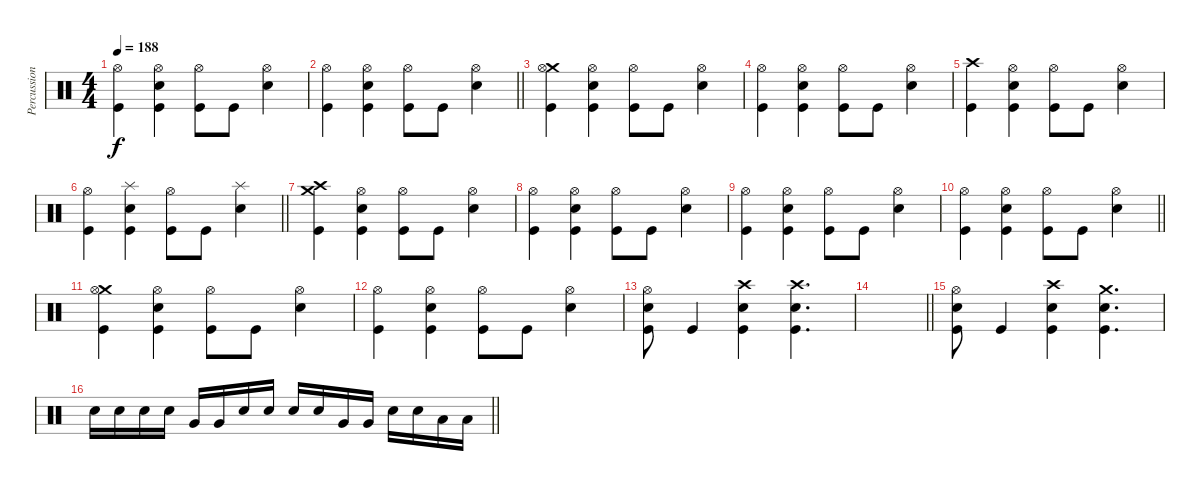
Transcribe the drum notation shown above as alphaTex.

\track ("Percussion" "Percussion") {instrument percussion}
\staff {score}
\articulation defaults
\ts (4 4)
\tempo 188
\clef neutral
\ks c
("Hi-Hat (open)" "Kick (hit)").4{dy f} ("Hi-Hat (open)" "Electric Snare (hit)" "Kick (hit)").4 ("Hi-Hat (open)" "Kick (hit)").8 "Kick (hit)".8 ("Hi-Hat (open)" "Electric Snare (hit)").4 |
\barLineRight lightlight
("Hi-Hat (open)" "Kick (hit)").4 ("Hi-Hat (open)" "Electric Snare (hit)" "Kick (hit)").4 ("Hi-Hat (open)" "Kick (hit)").8 "Kick (hit)".8 ("Hi-Hat (open)" "Electric Snare (hit)").4 |
("Crash medium (hit)" "Hi-Hat (open)" "Kick (hit)").4 ("Hi-Hat (open)" "Electric Snare (hit)" "Kick (hit)").4 ("Hi-Hat (open)" "Kick (hit)").8 "Kick (hit)".8 ("Hi-Hat (open)" "Electric Snare (hit)").4 |
("Hi-Hat (open)" "Kick (hit)").4 ("Hi-Hat (open)" "Electric Snare (hit)" "Kick (hit)").4 ("Hi-Hat (open)" "Kick (hit)").8 "Kick (hit)".8 ("Hi-Hat (open)" "Electric Snare (hit)").4 |
("Crash high (hit)" "Kick (hit)").4 ("Hi-Hat (open)" "Electric Snare (hit)" "Kick (hit)").4 ("Hi-Hat (open)" "Kick (hit)").8 "Kick (hit)".8 ("Hi-Hat (open)" "Electric Snare (hit)").4 |
\barLineRight lightlight
("Hi-Hat (open)" "Kick (hit)").4 ("Splash (hit)" "Electric Snare (hit)" "Kick (hit)").4 ("Hi-Hat (open)" "Kick (hit)").8 "Kick (hit)".8 ("Splash (hit)" "Electric Snare (hit)").4 |
("Crash high (hit)" "Crash medium (hit)" "Kick (hit)").4 ("Hi-Hat (open)" "Electric Snare (hit)" "Kick (hit)").4 ("Hi-Hat (open)" "Kick (hit)").8 "Kick (hit)".8 ("Hi-Hat (open)" "Electric Snare (hit)").4 |
("Hi-Hat (open)" "Kick (hit)").4 ("Hi-Hat (open)" "Electric Snare (hit)" "Kick (hit)").4 ("Hi-Hat (open)" "Kick (hit)").8 "Kick (hit)".8 ("Hi-Hat (open)" "Electric Snare (hit)").4 |
("Hi-Hat (open)" "Kick (hit)").4 ("Hi-Hat (open)" "Electric Snare (hit)" "Kick (hit)").4 ("Hi-Hat (open)" "Kick (hit)").8 "Kick (hit)".8 ("Hi-Hat (open)" "Electric Snare (hit)").4 |
\barLineRight lightlight
("Hi-Hat (open)" "Kick (hit)").4 ("Hi-Hat (open)" "Electric Snare (hit)" "Kick (hit)").4 ("Hi-Hat (open)" "Kick (hit)").8 "Kick (hit)".8 ("Hi-Hat (open)" "Electric Snare (hit)").4 |
("Crash medium (hit)" "Hi-Hat (open)" "Kick (hit)").4 ("Hi-Hat (open)" "Electric Snare (hit)" "Kick (hit)").4 ("Hi-Hat (open)" "Kick (hit)").8 "Kick (hit)".8 ("Hi-Hat (open)" "Electric Snare (hit)").4 |
("Hi-Hat (open)" "Kick (hit)").4 ("Hi-Hat (open)" "Electric Snare (hit)" "Kick (hit)").4 ("Hi-Hat (open)" "Kick (hit)").8 "Kick (hit)".8 ("Hi-Hat (open)" "Electric Snare (hit)").4 |
("Hi-Hat (open)" "Electric Snare (hit)" "Kick (hit)").8 "Kick (hit)".4 ("Crash high (hit)" "Electric Snare (hit)" "Kick (hit)").4 ("Crash high (hit)" "Electric Snare (hit)" "Kick (hit)").4{d} |
\barLineRight lightlight
|
("Hi-Hat (open)" "Electric Snare (hit)" "Kick (hit)").8 "Kick (hit)".4 ("Crash high (hit)" "Electric Snare (hit)" "Kick (hit)").4 ("Crash medium (hit)" "Electric Snare (hit)" "Kick (hit)").4{d} |
\barLineRight lightlight "Electric Snare (hit)".16 "Electric Snare (hit)".16 "Electric Snare (hit)".16 "Electric Snare (hit)".16 "Very Low Tom (hit)".16 "Very Low Tom (hit)".16 "Electric Snare (hit)".16 "Electric Snare (hit)".16 "Electric Snare (hit)".16 "Electric Snare (hit)".16 "Very Low Tom (hit)".16 "Very Low Tom (hit)".16 "Electric Snare (hit)".16 "Electric Snare (hit)".16 "Low Floor Tom (hit)".16 "Low Floor Tom (hit)".16
